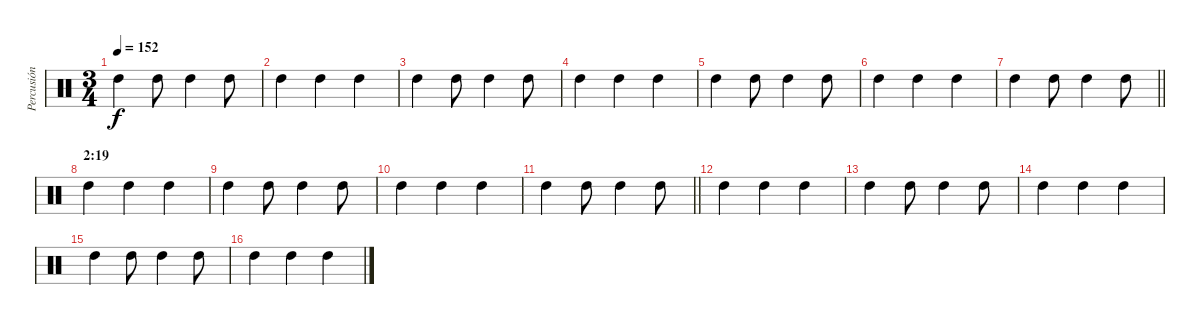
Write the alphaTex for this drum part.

\track ("Percusión" "Percusión") {instrument percussion}
\staff {score}
\articulation defaults
\ts (3 4)
\tempo 152
\clef neutral
\ks c "High Tom (hit)".4{dy f} "High Tom (hit)".8 "High Tom (hit)".4 "High Tom (hit)".8
|
"High Tom (hit)".4 "High Tom (hit)".4 "High Tom (hit)".4 |
"High Tom (hit)".4 "High Tom (hit)".8 "High Tom (hit)".4 "High Tom (hit)".8 |
"High Tom (hit)".4 "High Tom (hit)".4 "High Tom (hit)".4 |
"High Tom (hit)".4 "High Tom (hit)".8 "High Tom (hit)".4 "High Tom (hit)".8 |
"High Tom (hit)".4 "High Tom (hit)".4 "High Tom (hit)".4 |
\barLineRight lightlight "High Tom (hit)".4 "High Tom (hit)".8 "High Tom (hit)".4 "High Tom (hit)".8
|
\section ("" "2:19")
"High Tom (hit)".4 "High Tom (hit)".4 "High Tom (hit)".4 |
"High Tom (hit)".4 "High Tom (hit)".8 "High Tom (hit)".4 "High Tom (hit)".8 |
"High Tom (hit)".4 "High Tom (hit)".4 "High Tom (hit)".4 |
\barLineRight lightlight "High Tom (hit)".4 "High Tom (hit)".8 "High Tom (hit)".4 "High Tom (hit)".8
|
"High Tom (hit)".4 "High Tom (hit)".4 "High Tom (hit)".4 |
"High Tom (hit)".4 "High Tom (hit)".8 "High Tom (hit)".4 "High Tom (hit)".8 |
"High Tom (hit)".4 "High Tom (hit)".4 "High Tom (hit)".4 |
"High Tom (hit)".4 "High Tom (hit)".8 "High Tom (hit)".4 "High Tom (hit)".8 |
"High Tom (hit)".4 "High Tom (hit)".4 "High Tom (hit)".4
